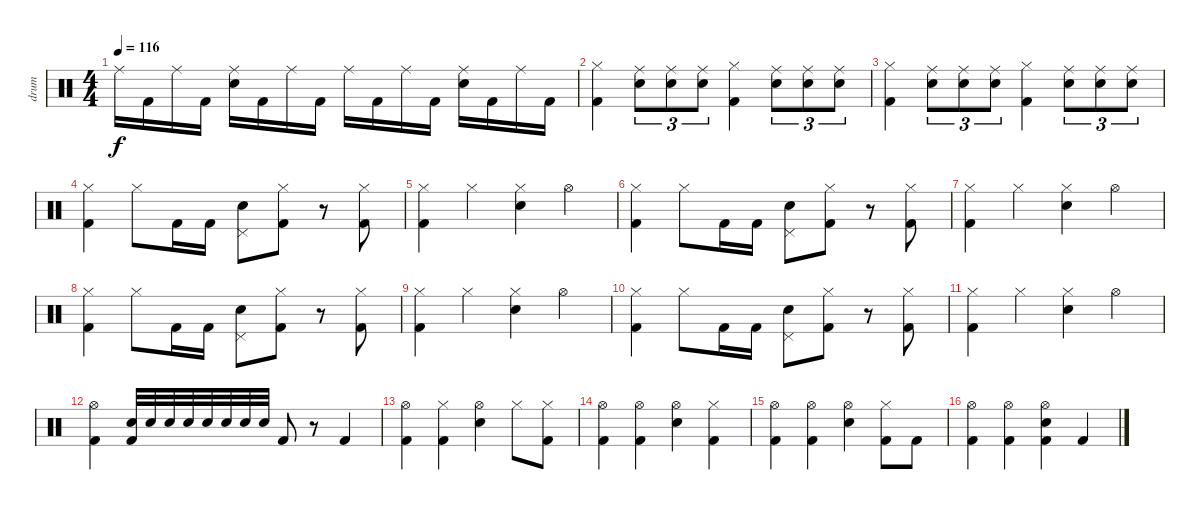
\track ("drum" "drum") {instrument percussion}
\staff {score}
\articulation defaults
\ts (4 4)
\tempo 116
\clef neutral
\ks c "Ride (middle)".16{dy f} "Kick (hit) 2".16 "Ride (middle)".16 "Kick (hit) 2".16
("Ride (middle)" "Electric Snare (hit)").16 "Kick (hit) 2".16 "Ride (middle)".16 "Kick (hit) 2".16 "Ride (middle)".16 "Kick (hit) 2".16 "Ride (middle)".16 "Kick (hit) 2".16 ("Ride (middle)" "Electric Snare (hit)").16 "Kick (hit) 2".16 "Ride (middle)".16 "Kick (hit) 2".16 |
("Hi-Hat (closed)" "Kick (hit) 2").4 ("Ride (middle)" "Electric Snare (hit)").8{tu (3 2)} ("Ride (middle)" "Electric Snare (hit)").8{tu (3 2)} ("Ride (middle)" "Electric Snare (hit)").8{tu (3 2)} ("Hi-Hat (closed)" "Kick (hit) 2").4 ("Ride (middle)" "Electric Snare (hit)").8{tu (3 2)} ("Ride (middle)" "Electric Snare (hit)").8{tu (3 2)} ("Ride (middle)" "Electric Snare (hit)").8{tu (3 2)} |
("Hi-Hat (closed)" "Kick (hit) 2").4 ("Ride (middle)" "Electric Snare (hit)").8{tu (3 2)} ("Ride (middle)" "Electric Snare (hit)").8{tu (3 2)} ("Ride (middle)" "Electric Snare (hit)").8{tu (3 2)} ("Hi-Hat (closed)" "Kick (hit) 2").4 ("Ride (middle)" "Electric Snare (hit)").8{tu (3 2)} ("Ride (middle)" "Electric Snare (hit)").8{tu (3 2)} ("Ride (middle)" "Electric Snare (hit)").8{tu (3 2)} |
("Hi-Hat (closed)" "Kick (hit) 2").4 "Hi-Hat (closed)".8 "Kick (hit) 2".16 "Kick (hit) 2".16 ("Pedal Hi-Hat (hit)" "Electric Snare (hit)").8 ("Hi-Hat (closed)" "Kick (hit) 2").8 r.8 ("Hi-Hat (closed)" "Kick (hit) 2").8 |
("Hi-Hat (closed)" "Kick (hit) 2").4 "Hi-Hat (closed)".4 ("Hi-Hat (closed)" "Electric Snare (hit)").4 "Hi-Hat (open)".4 |
("Hi-Hat (closed)" "Kick (hit) 2").4 "Hi-Hat (closed)".8 "Kick (hit) 2".16 "Kick (hit) 2".16 ("Pedal Hi-Hat (hit)" "Electric Snare (hit)").8 ("Hi-Hat (closed)" "Kick (hit) 2").8 r.8 ("Hi-Hat (closed)" "Kick (hit) 2").8 |
("Hi-Hat (closed)" "Kick (hit) 2").4 "Hi-Hat (closed)".4 ("Hi-Hat (closed)" "Electric Snare (hit)").4 "Hi-Hat (open)".4 |
("Hi-Hat (closed)" "Kick (hit) 2").4 "Hi-Hat (closed)".8 "Kick (hit) 2".16 "Kick (hit) 2".16 ("Pedal Hi-Hat (hit)" "Electric Snare (hit)").8 ("Hi-Hat (closed)" "Kick (hit) 2").8 r.8 ("Hi-Hat (closed)" "Kick (hit) 2").8 |
("Hi-Hat (closed)" "Kick (hit) 2").4 "Hi-Hat (closed)".4 ("Hi-Hat (closed)" "Electric Snare (hit)").4 "Hi-Hat (open)".4 |
("Hi-Hat (closed)" "Kick (hit) 2").4 "Hi-Hat (closed)".8 "Kick (hit) 2".16 "Kick (hit) 2".16 ("Pedal Hi-Hat (hit)" "Electric Snare (hit)").8 ("Hi-Hat (closed)" "Kick (hit) 2").8 r.8 ("Hi-Hat (closed)" "Kick (hit) 2").8 |
("Hi-Hat (closed)" "Kick (hit) 2").4 "Hi-Hat (closed)".4 ("Hi-Hat (closed)" "Electric Snare (hit)").4 "Hi-Hat (open)".4 |
("Hi-Hat (open)" "Kick (hit) 2").4 ("Electric Snare (hit)" "Kick (hit) 2").32 "Electric Snare (hit)".32 "Electric Snare (hit)".32 "Electric Snare (hit)".32 "Electric Snare (hit)".32 "Electric Snare (hit)".32 "Electric Snare (hit)".32 "Electric Snare (hit)".32 "Kick (hit) 2".8 r.8 "Kick (hit) 2".4 |
("Hi-Hat (open)" "Kick (hit) 2").4 ("Hi-Hat (closed)" "Kick (hit) 2").4 ("Hi-Hat (open)" "Electric Snare (hit)").4 "Hi-Hat (closed)".8 ("Hi-Hat (closed)" "Kick (hit) 2").8 |
("Hi-Hat (open)" "Kick (hit) 2").4 ("Hi-Hat (open)" "Kick (hit) 2").4 ("Hi-Hat (open)" "Electric Snare (hit)").4 ("Hi-Hat (closed)" "Kick (hit) 2").4 |
("Hi-Hat (open)" "Kick (hit) 2").4 ("Hi-Hat (open)" "Kick (hit) 2").4 ("Hi-Hat (open)" "Electric Snare (hit)").4 ("Hi-Hat (closed)" "Kick (hit) 2").8 "Kick (hit) 2".8 |
("Hi-Hat (open)" "Kick (hit) 2").4 ("Hi-Hat (open)" "Kick (hit) 2").4 ("Hi-Hat (open)" "Electric Snare (hit)" "Kick (hit) 2").4 "Kick (hit) 2".4
